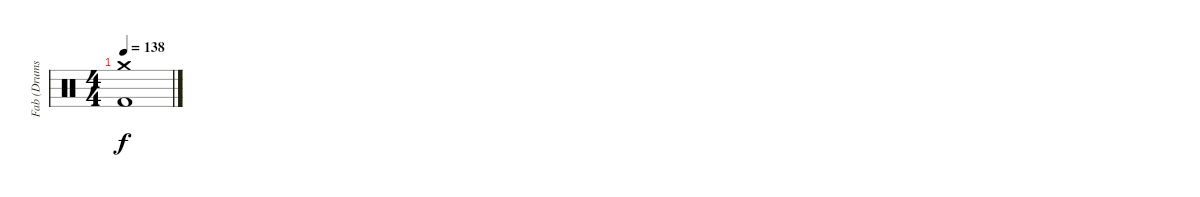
\track ("Fab (Drums)" "Fab (Drums") {instrument percussion}
\staff {score}
\articulation defaults
\ts (4 4)
\tempo 138
\clef neutral
\ks c
("Crash medium (hit)" "Kick (hit) 2").1{dy f}
